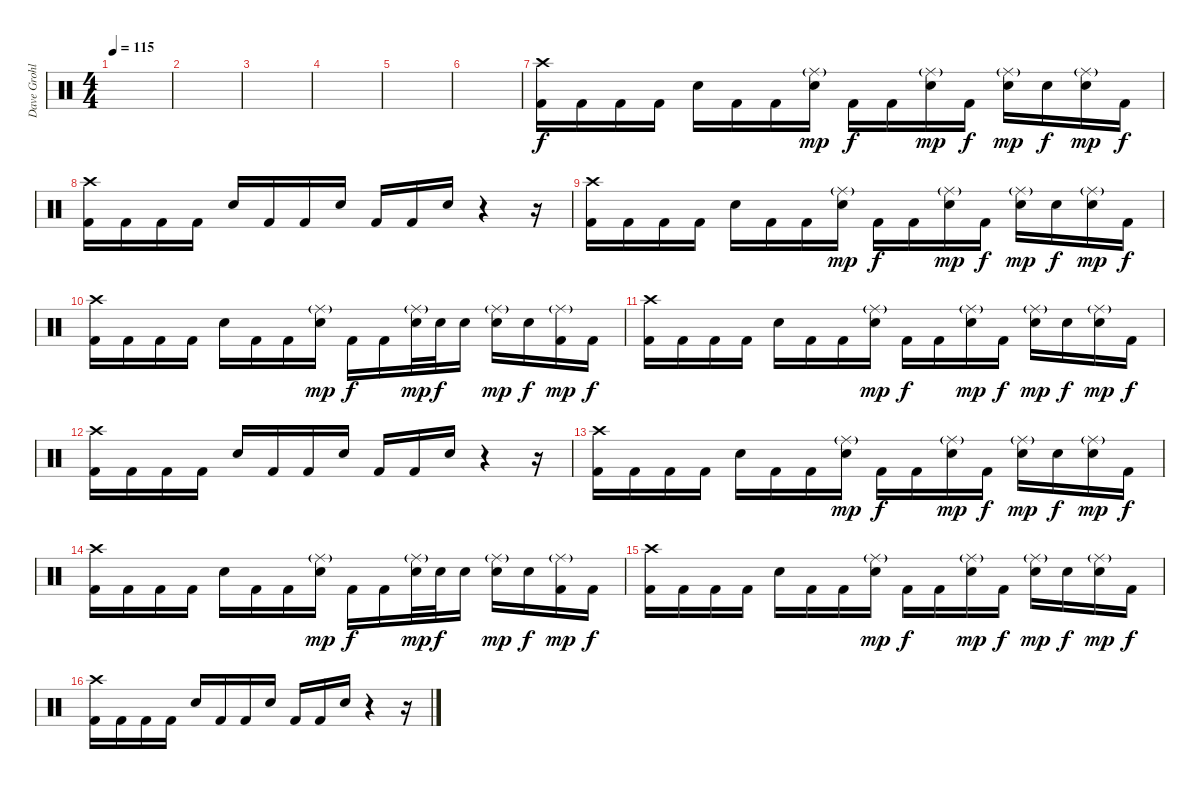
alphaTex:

\track ("Dave Grohl" "Dave Grohl") {instrument percussion}
\staff {score}
\articulation defaults
\ts (4 4)
\tempo 115
\clef neutral
\ks c
|
|
|
|
|
|
("Crash high (hit)" "Kick (hit) 2").16{dy f} "Kick (hit) 2".16 "Kick (hit) 2".16 "Kick (hit) 2".16 "Snare (hit) 2".16 "Kick (hit) 2".16 "Kick (hit) 2".16 ("Ride (middle)"{g} "Snare (hit) 2").16{dy mp} "Kick (hit) 2".16{dy f} "Kick (hit) 2".16 ("Ride (middle)"{g} "Snare (hit) 2").16{dy mp} "Kick (hit) 2".16{dy f} ("Ride (middle)"{g} "Snare (hit) 2").16{dy mp} "Snare (hit) 2".16{dy f} ("Ride (middle)"{g} "Snare (hit) 2").16{dy mp} "Kick (hit) 2".16{dy f} |
("Crash high (hit)" "Kick (hit) 2").16 "Kick (hit) 2".16 "Kick (hit) 2".16 "Kick (hit) 2".16 "Snare (hit) 2".16 "Kick (hit) 2".16 "Kick (hit) 2".16 "Snare (hit) 2".16 "Kick (hit) 2".16 "Kick (hit) 2".16 "Snare (hit) 2".16 r.4 r.16 |
("Crash high (hit)" "Kick (hit) 2").16 "Kick (hit) 2".16 "Kick (hit) 2".16 "Kick (hit) 2".16 "Snare (hit) 2".16 "Kick (hit) 2".16 "Kick (hit) 2".16 ("Ride (middle)"{g} "Snare (hit) 2").16{dy mp} "Kick (hit) 2".16{dy f} "Kick (hit) 2".16 ("Ride (middle)"{g} "Snare (hit) 2").16{dy mp} "Kick (hit) 2".16{dy f} ("Ride (middle)"{g} "Snare (hit) 2").16{dy mp} "Snare (hit) 2".16{dy f} ("Ride (middle)"{g} "Snare (hit) 2").16{dy mp} "Kick (hit) 2".16{dy f} |
("Crash high (hit)" "Kick (hit) 2").16 "Kick (hit) 2".16 "Kick (hit) 2".16 "Kick (hit) 2".16 "Snare (hit) 2".16 "Kick (hit) 2".16 "Kick (hit) 2".16 ("Ride (middle)"{g} "Snare (hit) 2").16{dy mp} "Kick (hit) 2".16{dy f} "Kick (hit) 2".16 ("Ride (middle)"{g} "Snare (hit) 2").32{dy mp} "Snare (hit) 2".32{dy f} "Snare (hit) 2".16 ("Ride (middle)"{g} "Snare (hit) 2").16{dy mp} "Snare (hit) 2".16{dy f} ("Ride (middle)"{g} "Kick (hit) 2").16{dy mp} "Kick (hit) 2".16{dy f} |
("Crash high (hit)" "Kick (hit) 2").16 "Kick (hit) 2".16 "Kick (hit) 2".16 "Kick (hit) 2".16 "Snare (hit) 2".16 "Kick (hit) 2".16 "Kick (hit) 2".16 ("Ride (middle)"{g} "Snare (hit) 2").16{dy mp} "Kick (hit) 2".16{dy f} "Kick (hit) 2".16 ("Ride (middle)"{g} "Snare (hit) 2").16{dy mp} "Kick (hit) 2".16{dy f} ("Ride (middle)"{g} "Snare (hit) 2").16{dy mp} "Snare (hit) 2".16{dy f} ("Ride (middle)"{g} "Snare (hit) 2").16{dy mp} "Kick (hit) 2".16{dy f} |
("Crash high (hit)" "Kick (hit) 2").16 "Kick (hit) 2".16 "Kick (hit) 2".16 "Kick (hit) 2".16 "Snare (hit) 2".16 "Kick (hit) 2".16 "Kick (hit) 2".16 "Snare (hit) 2".16 "Kick (hit) 2".16 "Kick (hit) 2".16 "Snare (hit) 2".16 r.4 r.16 |
("Crash high (hit)" "Kick (hit) 2").16 "Kick (hit) 2".16 "Kick (hit) 2".16 "Kick (hit) 2".16 "Snare (hit) 2".16 "Kick (hit) 2".16 "Kick (hit) 2".16 ("Ride (middle)"{g} "Snare (hit) 2").16{dy mp} "Kick (hit) 2".16{dy f} "Kick (hit) 2".16 ("Ride (middle)"{g} "Snare (hit) 2").16{dy mp} "Kick (hit) 2".16{dy f} ("Ride (middle)"{g} "Snare (hit) 2").16{dy mp} "Snare (hit) 2".16{dy f} ("Ride (middle)"{g} "Snare (hit) 2").16{dy mp} "Kick (hit) 2".16{dy f} |
("Crash high (hit)" "Kick (hit) 2").16 "Kick (hit) 2".16 "Kick (hit) 2".16 "Kick (hit) 2".16 "Snare (hit) 2".16 "Kick (hit) 2".16 "Kick (hit) 2".16 ("Ride (middle)"{g} "Snare (hit) 2").16{dy mp} "Kick (hit) 2".16{dy f} "Kick (hit) 2".16 ("Ride (middle)"{g} "Snare (hit) 2").32{dy mp} "Snare (hit) 2".32{dy f} "Snare (hit) 2".16 ("Ride (middle)"{g} "Snare (hit) 2").16{dy mp} "Snare (hit) 2".16{dy f} ("Ride (middle)"{g} "Kick (hit) 2").16{dy mp} "Kick (hit) 2".16{dy f} |
("Crash high (hit)" "Kick (hit) 2").16 "Kick (hit) 2".16 "Kick (hit) 2".16 "Kick (hit) 2".16 "Snare (hit) 2".16 "Kick (hit) 2".16 "Kick (hit) 2".16 ("Ride (middle)"{g} "Snare (hit) 2").16{dy mp} "Kick (hit) 2".16{dy f} "Kick (hit) 2".16 ("Ride (middle)"{g} "Snare (hit) 2").16{dy mp} "Kick (hit) 2".16{dy f} ("Ride (middle)"{g} "Snare (hit) 2").16{dy mp} "Snare (hit) 2".16{dy f} ("Ride (middle)"{g} "Snare (hit) 2").16{dy mp} "Kick (hit) 2".16{dy f} |
("Crash high (hit)" "Kick (hit) 2").16 "Kick (hit) 2".16 "Kick (hit) 2".16 "Kick (hit) 2".16 "Snare (hit) 2".16 "Kick (hit) 2".16 "Kick (hit) 2".16 "Snare (hit) 2".16 "Kick (hit) 2".16 "Kick (hit) 2".16 "Snare (hit) 2".16 r.4 r.16
